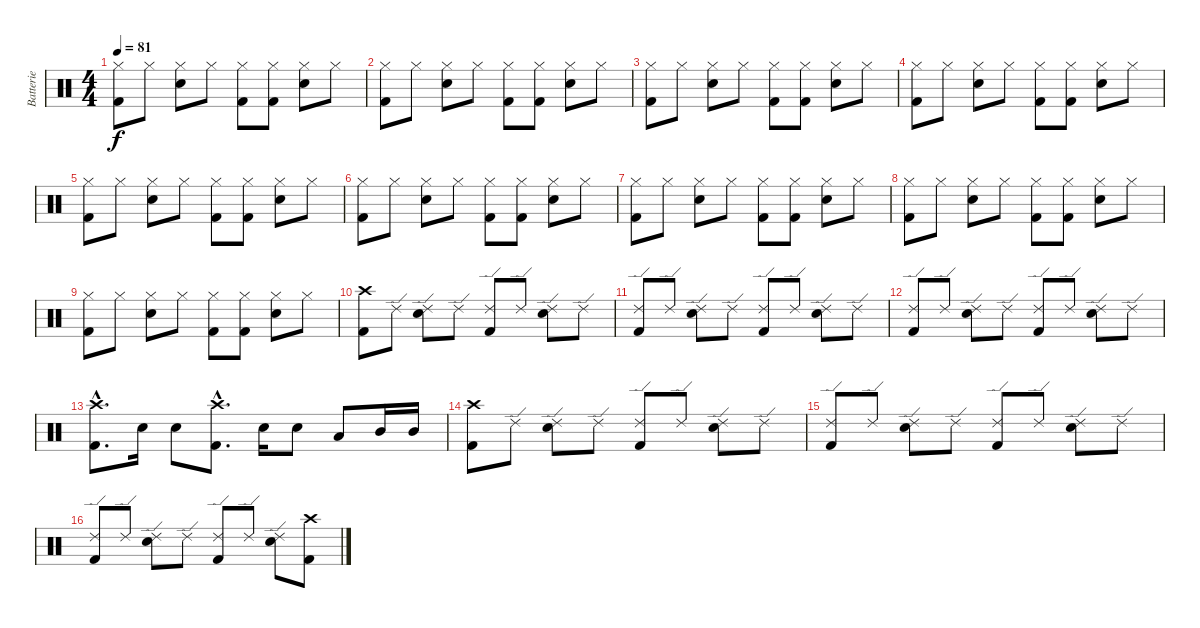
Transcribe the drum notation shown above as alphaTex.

\track ("Batterie" "Batterie") {instrument percussion}
\staff {score}
\articulation defaults
\ts (4 4)
\tempo 81
\clef neutral
\ks c
("Hi-Hat (closed)" "Kick (hit) 2").8{dy f} "Hi-Hat (closed)".8 ("Hi-Hat (closed)" "Electric Snare (hit)").8 "Hi-Hat (closed)".8 ("Hi-Hat (closed)" "Kick (hit) 2").8 ("Hi-Hat (closed)" "Kick (hit) 2").8 ("Hi-Hat (closed)" "Electric Snare (hit)").8 "Hi-Hat (closed)".8 |
("Hi-Hat (closed)" "Kick (hit) 2").8 "Hi-Hat (closed)".8 ("Hi-Hat (closed)" "Electric Snare (hit)").8 "Hi-Hat (closed)".8 ("Hi-Hat (closed)" "Kick (hit) 2").8 ("Hi-Hat (closed)" "Kick (hit) 2").8 ("Hi-Hat (closed)" "Electric Snare (hit)").8 "Hi-Hat (closed)".8 |
("Hi-Hat (closed)" "Kick (hit) 2").8 "Hi-Hat (closed)".8 ("Hi-Hat (closed)" "Electric Snare (hit)").8 "Hi-Hat (closed)".8 ("Hi-Hat (closed)" "Kick (hit) 2").8 ("Hi-Hat (closed)" "Kick (hit) 2").8 ("Hi-Hat (closed)" "Electric Snare (hit)").8 "Hi-Hat (closed)".8 |
("Hi-Hat (closed)" "Kick (hit) 2").8 "Hi-Hat (closed)".8 ("Hi-Hat (closed)" "Electric Snare (hit)").8 "Hi-Hat (closed)".8 ("Hi-Hat (closed)" "Kick (hit) 2").8 ("Hi-Hat (closed)" "Kick (hit) 2").8 ("Hi-Hat (closed)" "Electric Snare (hit)").8 "Hi-Hat (closed)".8 |
("Hi-Hat (closed)" "Kick (hit) 2").8 "Hi-Hat (closed)".8 ("Hi-Hat (closed)" "Electric Snare (hit)").8 "Hi-Hat (closed)".8 ("Hi-Hat (closed)" "Kick (hit) 2").8 ("Hi-Hat (closed)" "Kick (hit) 2").8 ("Hi-Hat (closed)" "Electric Snare (hit)").8 "Hi-Hat (closed)".8 |
("Hi-Hat (closed)" "Kick (hit) 2").8 "Hi-Hat (closed)".8 ("Hi-Hat (closed)" "Electric Snare (hit)").8 "Hi-Hat (closed)".8 ("Hi-Hat (closed)" "Kick (hit) 2").8 ("Hi-Hat (closed)" "Kick (hit) 2").8 ("Hi-Hat (closed)" "Electric Snare (hit)").8 "Hi-Hat (closed)".8 |
("Hi-Hat (closed)" "Kick (hit) 2").8 "Hi-Hat (closed)".8 ("Hi-Hat (closed)" "Electric Snare (hit)").8 "Hi-Hat (closed)".8 ("Hi-Hat (closed)" "Kick (hit) 2").8 ("Hi-Hat (closed)" "Kick (hit) 2").8 ("Hi-Hat (closed)" "Electric Snare (hit)").8 "Hi-Hat (closed)".8 |
("Hi-Hat (closed)" "Kick (hit) 2").8 "Hi-Hat (closed)".8 ("Hi-Hat (closed)" "Electric Snare (hit)").8 "Hi-Hat (closed)".8 ("Hi-Hat (closed)" "Kick (hit) 2").8 ("Hi-Hat (closed)" "Kick (hit) 2").8 ("Hi-Hat (closed)" "Electric Snare (hit)").8 "Hi-Hat (closed)".8 |
("Hi-Hat (closed)" "Kick (hit) 2").8 "Hi-Hat (closed)".8 ("Hi-Hat (closed)" "Electric Snare (hit)").8 "Hi-Hat (closed)".8 ("Hi-Hat (closed)" "Kick (hit) 2").8 ("Hi-Hat (closed)" "Kick (hit) 2").8 ("Hi-Hat (closed)" "Electric Snare (hit)").8 "Hi-Hat (closed)".8 |
("Crash high (hit)" "Kick (hit) 2").8 "Ride (edge) 2".8 ("Ride (edge) 2" "Electric Snare (hit)").8 "Ride (edge) 2".8 ("Ride (edge) 2" "Kick (hit) 2").8 "Ride (edge) 2".8 ("Ride (edge) 2" "Electric Snare (hit)").8 "Ride (edge) 2".8 |
("Ride (edge) 2" "Kick (hit) 2").8 "Ride (edge) 2".8 ("Ride (edge) 2" "Electric Snare (hit)").8 "Ride (edge) 2".8 ("Ride (edge) 2" "Kick (hit) 2").8 "Ride (edge) 2".8 ("Ride (edge) 2" "Electric Snare (hit)").8 "Ride (edge) 2".8 |
("Ride (edge) 2" "Kick (hit) 2").8 "Ride (edge) 2".8 ("Ride (edge) 2" "Electric Snare (hit)").8 "Ride (edge) 2".8 ("Ride (edge) 2" "Kick (hit) 2").8 "Ride (edge) 2".8 ("Ride (edge) 2" "Electric Snare (hit)").8 "Ride (edge) 2".8 |
("Crash high (hit)"{hac} "Kick (hit) 2"{hac}).8{d} "Electric Snare (hit)".16 "Electric Snare (hit)".8 ("Crash high (hit)"{hac} "Kick (hit) 2"{hac}).8{d} "Electric Snare (hit)".16 "Electric Snare (hit)".8 "Low Tom (hit)".8 "Mid Tom (hit)".16 "Mid Tom (hit)".16 |
("Crash high (hit)" "Kick (hit) 2").8 "Ride (edge) 2".8 ("Ride (edge) 2" "Electric Snare (hit)").8 "Ride (edge) 2".8 ("Ride (edge) 2" "Kick (hit) 2").8 "Ride (edge) 2".8 ("Ride (edge) 2" "Electric Snare (hit)").8 "Ride (edge) 2".8 |
("Ride (edge) 2" "Kick (hit) 2").8 "Ride (edge) 2".8 ("Ride (edge) 2" "Electric Snare (hit)").8 "Ride (edge) 2".8 ("Ride (edge) 2" "Kick (hit) 2").8 "Ride (edge) 2".8 ("Ride (edge) 2" "Electric Snare (hit)").8 "Ride (edge) 2".8 |
("Ride (edge) 2" "Kick (hit) 2").8 "Ride (edge) 2".8 ("Ride (edge) 2" "Electric Snare (hit)").8 "Ride (edge) 2".8 ("Ride (edge) 2" "Kick (hit) 2").8 "Ride (edge) 2".8 ("Ride (edge) 2" "Electric Snare (hit)").8 ("Crash high (hit)" "Kick (hit) 2").8
